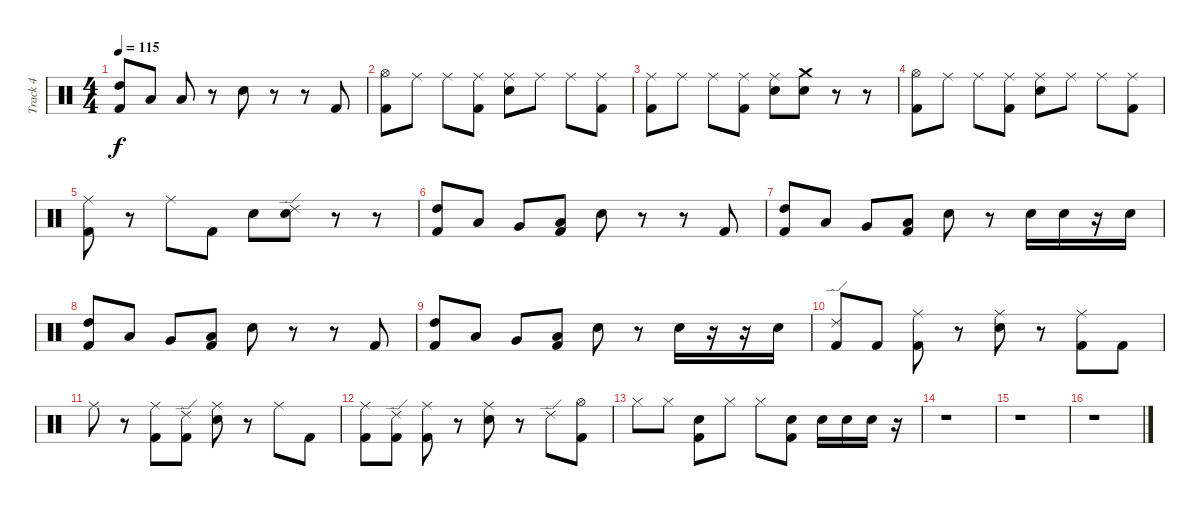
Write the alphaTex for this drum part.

\track ("Track 4" "Track 4") {instrument percussion}
\staff {score}
\articulation defaults
\ts (4 4)
\tempo 115
\clef neutral
\ks c
("High Tom (hit)" "Kick (hit) 2").8{dy f} "Low Tom (hit)".8 "Low Floor Tom (hit)".8 r.8 "Electric Snare (hit)".8 r.8 r.8 "Kick (hit) 2".8 |
("Hi-Hat (open)" "Kick (hit) 2").8 "Ride (middle)".8 "Ride (middle)".8 ("Ride (middle)" "Kick (hit) 2").8 ("Ride (middle)" "Electric Snare (hit)").8 "Ride (middle)".8 "Ride (middle)".8 ("Ride (middle)" "Kick (hit) 2").8 |
("Ride (middle)" "Kick (hit) 2").8 "Ride (middle)".8 "Ride (middle)".8 ("Ride (middle)" "Kick (hit) 2").8 ("Ride (middle)" "Electric Snare (hit)").8 ("Crash medium (hit)" "Electric Snare (hit)").8 r.8 r.8 |
("Hi-Hat (open)" "Kick (hit) 2").8 "Ride (middle)".8 "Ride (middle)".8 ("Ride (middle)" "Kick (hit) 2").8 ("Ride (middle)" "Electric Snare (hit)").8 "Ride (middle)".8 "Ride (middle)".8 ("Ride (middle)" "Kick (hit) 2").8 |
("Ride (middle)" "Kick (hit) 2").8 r.8 "Ride (middle)".8 "Kick (hit) 2".8 "Electric Snare (hit)".8 ("Ride (edge) 2" "Electric Snare (hit)").8 r.8 r.8 |
("High Tom (hit)" "Kick (hit) 2").8 "Low Tom (hit)".8 "Very Low Tom (hit)".8 ("Low Floor Tom (hit)" "Kick (hit) 2").8 "Electric Snare (hit)".8 r.8 r.8 "Kick (hit) 2".8 |
("High Tom (hit)" "Kick (hit) 2").8 "Low Tom (hit)".8 "Very Low Tom (hit)".8 ("Low Floor Tom (hit)" "Kick (hit) 2").8 "Electric Snare (hit)".8 r.8 "Electric Snare (hit)".16 "Electric Snare (hit)".16 r.16 "Electric Snare (hit)".16 |
("High Tom (hit)" "Kick (hit) 2").8 "Low Tom (hit)".8 "Very Low Tom (hit)".8 ("Low Floor Tom (hit)" "Kick (hit) 2").8 "Electric Snare (hit)".8 r.8 r.8 "Kick (hit) 2".8 |
("High Tom (hit)" "Kick (hit) 2").8 "Low Tom (hit)".8 "Very Low Tom (hit)".8 ("Low Floor Tom (hit)" "Kick (hit) 2").8 "Electric Snare (hit)".8 r.8 "Electric Snare (hit)".16 r.16 r.16 "Electric Snare (hit)".16 |
("Ride (edge) 2" "Kick (hit) 2").8 "Kick (hit) 2".8 ("Ride (middle)" "Kick (hit) 2").8 r.8 ("Ride (middle)" "Electric Snare (hit)").8 r.8 ("Ride (middle)" "Kick (hit) 2").8 "Kick (hit) 2".8 |
"Ride (middle)".8 r.8 ("Ride (middle)" "Kick (hit) 2").8 ("Ride (edge) 2" "Kick (hit) 2").8 ("Ride (middle)" "Electric Snare (hit)").8 r.8 "Ride (middle)".8 "Kick (hit) 2".8 |
("Ride (middle)" "Kick (hit) 2").8 ("Ride (edge) 2" "Kick (hit) 2").8 ("Ride (middle)" "Kick (hit) 2").8 r.8 ("Ride (middle)" "Electric Snare (hit)").8 r.8 "Ride (edge) 2".8 ("Hi-Hat (open)" "Kick (hit) 2").8 |
"Hi-Hat (closed)".8 "Hi-Hat (closed)".8 ("Electric Snare (hit)" "Kick (hit) 2").8 "Hi-Hat (closed)".8 "Hi-Hat (closed)".8 ("Electric Snare (hit)" "Kick (hit) 2").8 "Electric Snare (hit)".16 "Electric Snare (hit)".16 "Electric Snare (hit)".16 r.16 |
r.1 |
r.1 |
r.1
